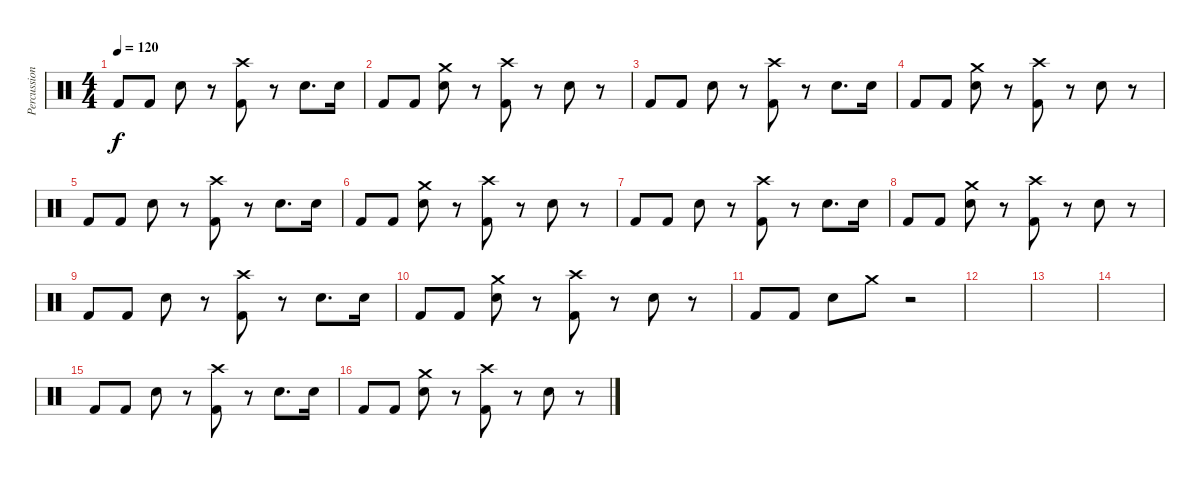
\track ("Percussions" "Percussion") {instrument percussion}
\staff {score}
\articulation defaults
\ts (4 4)
\tempo 120
\clef neutral
\ks c "Kick (hit) 2".8{dy f} "Kick (hit) 2".8 "Electric Snare (hit)".8
r.8 ("Crash high (hit)" "Kick (hit) 2").8 r.8 "Electric Snare (hit)".8{d} "Electric Snare (hit)".16 |
"Kick (hit) 2".8 "Kick (hit) 2".8 ("Crash medium (hit)" "Electric Snare (hit)").8 r.8 ("Crash high (hit)" "Kick (hit) 2").8 r.8 "Electric Snare (hit)".8 r.8 |
"Kick (hit) 2".8 "Kick (hit) 2".8 "Electric Snare (hit)".8 r.8 ("Crash high (hit)" "Kick (hit) 2").8 r.8 "Electric Snare (hit)".8{d} "Electric Snare (hit)".16 |
"Kick (hit) 2".8 "Kick (hit) 2".8 ("Crash medium (hit)" "Electric Snare (hit)").8 r.8 ("Crash high (hit)" "Kick (hit) 2").8 r.8 "Electric Snare (hit)".8 r.8 |
"Kick (hit) 2".8 "Kick (hit) 2".8 "Electric Snare (hit)".8 r.8 ("Crash high (hit)" "Kick (hit) 2").8 r.8 "Electric Snare (hit)".8{d} "Electric Snare (hit)".16 |
"Kick (hit) 2".8 "Kick (hit) 2".8 ("Crash medium (hit)" "Electric Snare (hit)").8 r.8 ("Crash high (hit)" "Kick (hit) 2").8 r.8 "Electric Snare (hit)".8 r.8 |
"Kick (hit) 2".8 "Kick (hit) 2".8 "Electric Snare (hit)".8 r.8 ("Crash high (hit)" "Kick (hit) 2").8 r.8 "Electric Snare (hit)".8{d} "Electric Snare (hit)".16 |
"Kick (hit) 2".8 "Kick (hit) 2".8 ("Crash medium (hit)" "Electric Snare (hit)").8 r.8 ("Crash high (hit)" "Kick (hit) 2").8 r.8 "Electric Snare (hit)".8 r.8 |
"Kick (hit) 2".8 "Kick (hit) 2".8 "Electric Snare (hit)".8 r.8 ("Crash high (hit)" "Kick (hit) 2").8 r.8 "Electric Snare (hit)".8{d} "Electric Snare (hit)".16 |
"Kick (hit) 2".8 "Kick (hit) 2".8 ("Crash medium (hit)" "Electric Snare (hit)").8 r.8 ("Crash high (hit)" "Kick (hit) 2").8 r.8 "Electric Snare (hit)".8 r.8 |
"Kick (hit) 2".8 "Kick (hit) 2".8 "Electric Snare (hit)".8 "Crash medium (hit)".8 r.2 |
|
|
|
"Kick (hit) 2".8 "Kick (hit) 2".8 "Electric Snare (hit)".8 r.8 ("Crash high (hit)" "Kick (hit) 2").8 r.8 "Electric Snare (hit)".8{d} "Electric Snare (hit)".16 |
"Kick (hit) 2".8 "Kick (hit) 2".8 ("Crash medium (hit)" "Electric Snare (hit)").8 r.8 ("Crash high (hit)" "Kick (hit) 2").8 r.8 "Electric Snare (hit)".8 r.8
